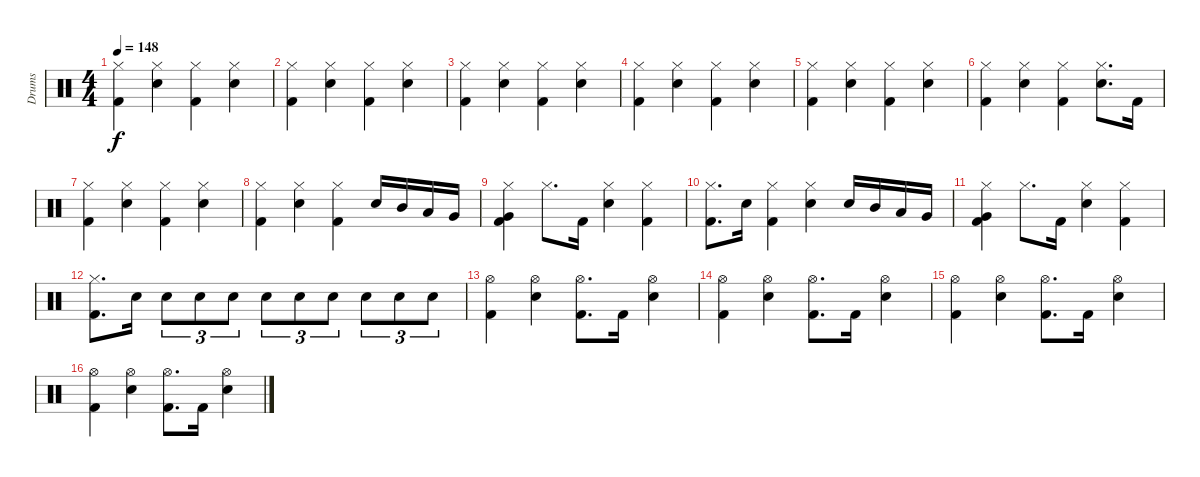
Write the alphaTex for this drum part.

\track ("Drums" "Drums") {instrument percussion}
\staff {score}
\articulation defaults
\ts (4 4)
\tempo 148
\clef neutral
\ks c
("Hi-Hat (closed)" "Kick (hit) 2").4{dy f volume 14} ("Hi-Hat (closed)" "Electric Snare (hit)").4 ("Hi-Hat (closed)" "Kick (hit) 2").4 ("Hi-Hat (closed)" "Electric Snare (hit)").4 |
("Hi-Hat (closed)" "Kick (hit) 2").4 ("Hi-Hat (closed)" "Electric Snare (hit)").4 ("Hi-Hat (closed)" "Kick (hit) 2").4 ("Hi-Hat (closed)" "Electric Snare (hit)").4 |
("Hi-Hat (closed)" "Kick (hit) 2").4 ("Hi-Hat (closed)" "Electric Snare (hit)").4 ("Hi-Hat (closed)" "Kick (hit) 2").4 ("Hi-Hat (closed)" "Electric Snare (hit)").4 |
("Hi-Hat (closed)" "Kick (hit) 2").4 ("Hi-Hat (closed)" "Electric Snare (hit)").4 ("Hi-Hat (closed)" "Kick (hit) 2").4 ("Hi-Hat (closed)" "Electric Snare (hit)").4 |
("Hi-Hat (closed)" "Kick (hit) 2").4 ("Hi-Hat (closed)" "Electric Snare (hit)").4 ("Hi-Hat (closed)" "Kick (hit) 2").4 ("Hi-Hat (closed)" "Electric Snare (hit)").4 |
("Hi-Hat (closed)" "Kick (hit) 2").4 ("Hi-Hat (closed)" "Electric Snare (hit)").4 ("Hi-Hat (closed)" "Kick (hit) 2").4 ("Hi-Hat (closed)" "Electric Snare (hit)").8{d} "Kick (hit) 2".16 |
("Hi-Hat (closed)" "Kick (hit) 2").4 ("Hi-Hat (closed)" "Electric Snare (hit)").4 ("Hi-Hat (closed)" "Kick (hit) 2").4 ("Hi-Hat (closed)" "Electric Snare (hit)").4 |
("Hi-Hat (closed)" "Kick (hit) 2").4 ("Hi-Hat (closed)" "Electric Snare (hit)").4 ("Hi-Hat (closed)" "Kick (hit) 2").4 "Electric Snare (hit)".16 "Mid Tom (hit)".16 "Low Tom (hit)".16 "Very Low Tom (hit)".16 |
("Hi-Hat (closed)" "Very Low Tom (hit)" "Kick (hit) 2").4 "Hi-Hat (closed)".8{d} "Kick (hit) 2".16 ("Hi-Hat (closed)" "Electric Snare (hit)").4 ("Hi-Hat (closed)" "Kick (hit) 2").4 |
("Hi-Hat (closed)" "Kick (hit) 2").8{d} "Electric Snare (hit)".16 ("Hi-Hat (closed)" "Kick (hit) 2").4 ("Hi-Hat (closed)" "Electric Snare (hit)").4 "Electric Snare (hit)".16 "Mid Tom (hit)".16 "Low Tom (hit)".16 "Very Low Tom (hit)".16 |
("Hi-Hat (closed)" "Very Low Tom (hit)" "Kick (hit) 2").4 "Hi-Hat (closed)".8{d} "Kick (hit) 2".16 ("Hi-Hat (closed)" "Electric Snare (hit)").4 ("Hi-Hat (closed)" "Kick (hit) 2").4 |
("Hi-Hat (closed)" "Kick (hit) 2").8{d} "Electric Snare (hit)".16 "Electric Snare (hit)".8{tu (3 2)} "Electric Snare (hit)".8{tu (3 2)} "Electric Snare (hit)".8{tu (3 2)} "Electric Snare (hit)".8{tu (3 2)} "Electric Snare (hit)".8{tu (3 2)} "Electric Snare (hit)".8{tu (3 2)} "Electric Snare (hit)".8{tu (3 2)} "Electric Snare (hit)".8{tu (3 2)} "Electric Snare (hit)".8{tu (3 2)} |
("Hi-Hat (open)" "Kick (hit) 2").4 ("Hi-Hat (open)" "Electric Snare (hit)").4 ("Hi-Hat (open)" "Kick (hit) 2").8{d} "Kick (hit) 2".16 ("Hi-Hat (open)" "Electric Snare (hit)").4 |
("Hi-Hat (open)" "Kick (hit) 2").4 ("Hi-Hat (open)" "Electric Snare (hit)").4 ("Hi-Hat (open)" "Kick (hit) 2").8{d} "Kick (hit) 2".16 ("Hi-Hat (open)" "Electric Snare (hit)").4 |
("Hi-Hat (open)" "Kick (hit) 2").4 ("Hi-Hat (open)" "Electric Snare (hit)").4 ("Hi-Hat (open)" "Kick (hit) 2").8{d} "Kick (hit) 2".16 ("Hi-Hat (open)" "Electric Snare (hit)").4 |
("Hi-Hat (open)" "Kick (hit) 2").4 ("Hi-Hat (open)" "Electric Snare (hit)").4 ("Hi-Hat (open)" "Kick (hit) 2").8{d} "Kick (hit) 2".16 ("Hi-Hat (open)" "Electric Snare (hit)").4
